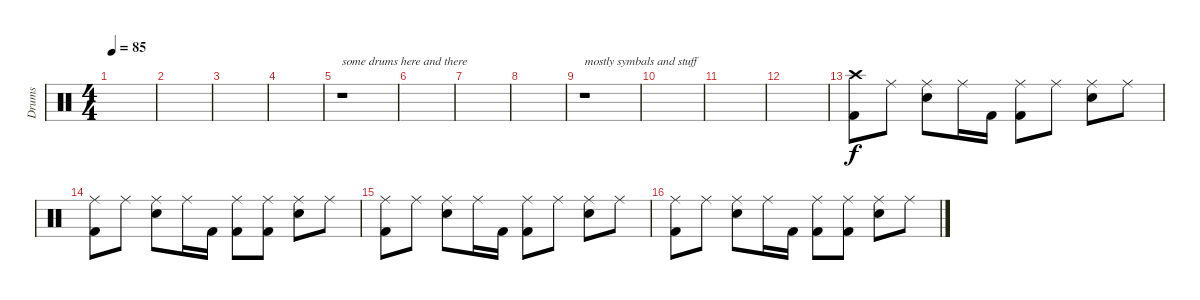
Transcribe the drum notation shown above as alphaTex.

\track ("Drums" "Drums") {instrument percussion}
\staff {score}
\articulation defaults
\ts (4 4)
\tempo 85
\clef neutral
\ks c
|
|
|
|
r.1{txt "some drums here and there"} |
|
|
|
r.1{txt "mostly symbals and stuff"} |
|
|
|
("Crash high (hit)" "Kick (hit) 2").8 "Ride (middle)".8 ("Ride (middle)" "Snare (hit) 2").8 "Ride (middle)".16 "Kick (hit) 2".16 ("Ride (middle)" "Kick (hit) 2").8 "Ride (middle)".8 ("Ride (middle)" "Snare (hit) 2").8 "Ride (middle)".8 |
("Ride (middle)" "Kick (hit) 2").8 "Ride (middle)".8 ("Ride (middle)" "Snare (hit) 2").8 "Ride (middle)".16 "Kick (hit) 2".16 ("Ride (middle)" "Kick (hit) 2").8 ("Ride (middle)" "Kick (hit) 2").8 ("Ride (middle)" "Snare (hit) 2").8 "Ride (middle)".8 |
("Ride (middle)" "Kick (hit) 2").8 "Ride (middle)".8 ("Ride (middle)" "Snare (hit) 2").8 "Ride (middle)".16 "Kick (hit) 2".16 ("Ride (middle)" "Kick (hit) 2").8 "Ride (middle)".8 ("Ride (middle)" "Snare (hit) 2").8 "Ride (middle)".8 |
("Ride (middle)" "Kick (hit) 2").8 "Ride (middle)".8 ("Ride (middle)" "Snare (hit) 2").8 "Ride (middle)".16 "Kick (hit) 2".16 ("Ride (middle)" "Kick (hit) 2").8 ("Ride (middle)" "Kick (hit) 2").8 ("Ride (middle)" "Snare (hit) 2").8 "Ride (middle)".8
